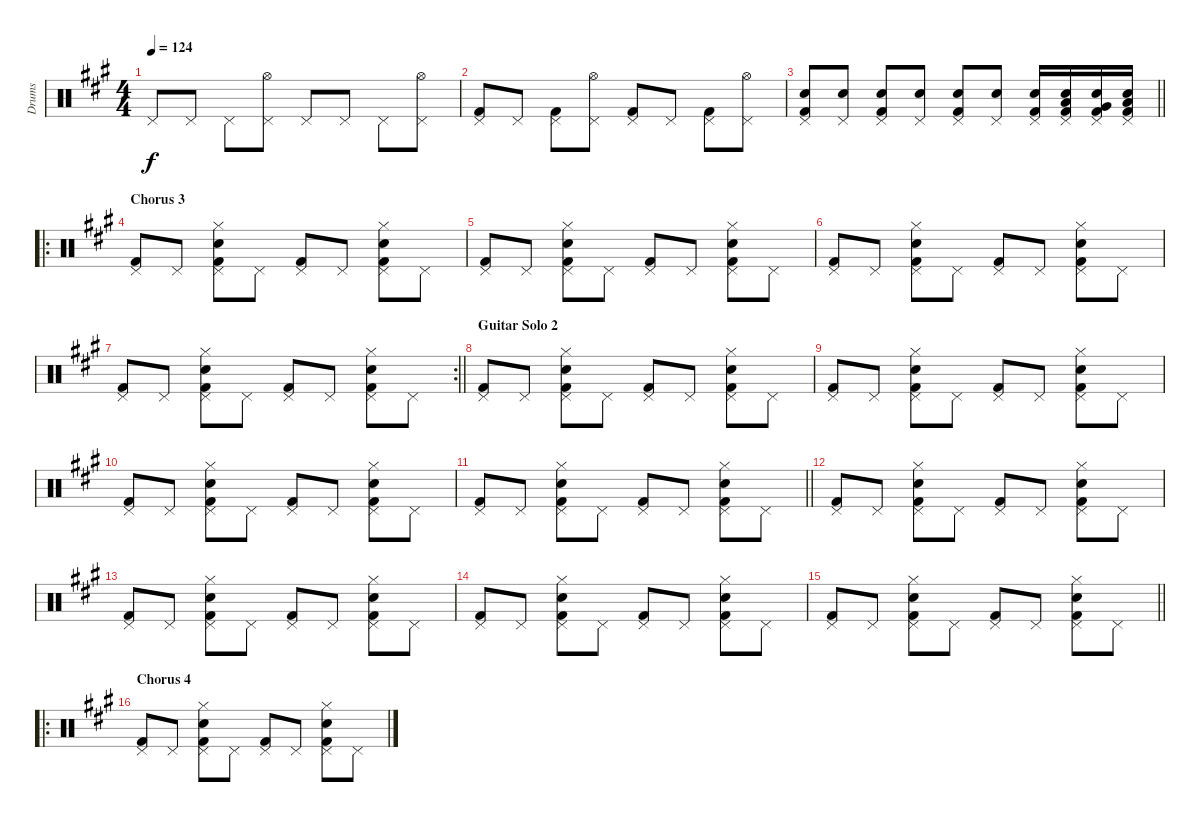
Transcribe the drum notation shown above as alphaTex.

\track ("Drums" "Drums") {instrument percussion}
\staff {score}
\articulation defaults
\ts (4 4)
\tempo 124
\clef neutral
\ks a "Pedal Hi-Hat (hit)".8{dy f} "Pedal Hi-Hat (hit)".8 "Pedal Hi-Hat (hit)".8
("Hi-Hat (open)" "Pedal Hi-Hat (hit)").8 "Pedal Hi-Hat (hit)".8 "Pedal Hi-Hat (hit)".8 "Pedal Hi-Hat (hit)".8 ("Hi-Hat (open)" "Pedal Hi-Hat (hit)").8 |
("Kick (hit) 2" "Pedal Hi-Hat (hit)").8 "Pedal Hi-Hat (hit)".8 ("Kick (hit) 2" "Pedal Hi-Hat (hit)").8 ("Hi-Hat (open)" "Pedal Hi-Hat (hit)").8 ("Kick (hit) 2" "Pedal Hi-Hat (hit)").8 "Pedal Hi-Hat (hit)".8 ("Kick (hit) 2" "Pedal Hi-Hat (hit)").8 ("Hi-Hat (open)" "Pedal Hi-Hat (hit)").8 |
\barLineRight lightlight
("Kick (hit) 2" "Snare (hit) 2" "Pedal Hi-Hat (hit)").8 ("Snare (hit) 2" "Pedal Hi-Hat (hit)").8 ("Kick (hit) 2" "Snare (hit) 2" "Pedal Hi-Hat (hit)").8 ("Snare (hit) 2" "Pedal Hi-Hat (hit)").8 ("Kick (hit) 2" "Snare (hit) 2" "Pedal Hi-Hat (hit)").8 ("Snare (hit) 2" "Pedal Hi-Hat (hit)").8 ("Kick (hit) 2" "Snare (hit) 2" "Pedal Hi-Hat (hit)").16 ("Kick (hit) 2" "Snare (hit) 2" "Pedal Hi-Hat (hit)" "Low Tom (hit)").16 ("Kick (hit) 2" "Snare (hit) 2" "Pedal Hi-Hat (hit)" "Very Low Tom (hit)").16 ("Kick (hit) 2" "Snare (hit) 2" "Pedal Hi-Hat (hit)" "Low Floor Tom (hit)").16 |
\ro
\section ("" "Chorus 3")
("Pedal Hi-Hat (hit)" "Kick (hit) 2").8 "Pedal Hi-Hat (hit)".8 ("Hi-Hat (closed)" "Snare (hit) 2" "Pedal Hi-Hat (hit)" "Kick (hit) 2").8 "Pedal Hi-Hat (hit)".8 ("Pedal Hi-Hat (hit)" "Kick (hit) 2").8 "Pedal Hi-Hat (hit)".8 ("Hi-Hat (closed)" "Snare (hit) 2" "Pedal Hi-Hat (hit)" "Kick (hit) 2").8 "Pedal Hi-Hat (hit)".8 |
("Pedal Hi-Hat (hit)" "Kick (hit) 2").8 "Pedal Hi-Hat (hit)".8 ("Hi-Hat (closed)" "Snare (hit) 2" "Pedal Hi-Hat (hit)" "Kick (hit) 2").8 "Pedal Hi-Hat (hit)".8 ("Pedal Hi-Hat (hit)" "Kick (hit) 2").8 "Pedal Hi-Hat (hit)".8 ("Hi-Hat (closed)" "Snare (hit) 2" "Pedal Hi-Hat (hit)" "Kick (hit) 2").8 "Pedal Hi-Hat (hit)".8 |
("Pedal Hi-Hat (hit)" "Kick (hit) 2").8 "Pedal Hi-Hat (hit)".8 ("Hi-Hat (closed)" "Snare (hit) 2" "Pedal Hi-Hat (hit)" "Kick (hit) 2").8 "Pedal Hi-Hat (hit)".8 ("Pedal Hi-Hat (hit)" "Kick (hit) 2").8 "Pedal Hi-Hat (hit)".8 ("Hi-Hat (closed)" "Snare (hit) 2" "Pedal Hi-Hat (hit)" "Kick (hit) 2").8 "Pedal Hi-Hat (hit)".8 |
\rc 2
\barLineRight lightlight
("Pedal Hi-Hat (hit)" "Kick (hit) 2").8 "Pedal Hi-Hat (hit)".8 ("Hi-Hat (closed)" "Snare (hit) 2" "Pedal Hi-Hat (hit)" "Kick (hit) 2").8 "Pedal Hi-Hat (hit)".8 ("Pedal Hi-Hat (hit)" "Kick (hit) 2").8 "Pedal Hi-Hat (hit)".8 ("Hi-Hat (closed)" "Snare (hit) 2" "Pedal Hi-Hat (hit)" "Kick (hit) 2").8 "Pedal Hi-Hat (hit)".8 |
\section ("" "Guitar Solo 2")
("Pedal Hi-Hat (hit)" "Kick (hit) 2").8 "Pedal Hi-Hat (hit)".8 ("Hi-Hat (closed)" "Snare (hit) 2" "Pedal Hi-Hat (hit)" "Kick (hit) 2").8 "Pedal Hi-Hat (hit)".8 ("Pedal Hi-Hat (hit)" "Kick (hit) 2").8 "Pedal Hi-Hat (hit)".8 ("Hi-Hat (closed)" "Snare (hit) 2" "Pedal Hi-Hat (hit)" "Kick (hit) 2").8 "Pedal Hi-Hat (hit)".8 |
("Pedal Hi-Hat (hit)" "Kick (hit) 2").8 "Pedal Hi-Hat (hit)".8 ("Hi-Hat (closed)" "Snare (hit) 2" "Pedal Hi-Hat (hit)" "Kick (hit) 2").8 "Pedal Hi-Hat (hit)".8 ("Pedal Hi-Hat (hit)" "Kick (hit) 2").8 "Pedal Hi-Hat (hit)".8 ("Hi-Hat (closed)" "Snare (hit) 2" "Pedal Hi-Hat (hit)" "Kick (hit) 2").8 "Pedal Hi-Hat (hit)".8 |
("Pedal Hi-Hat (hit)" "Kick (hit) 2").8 "Pedal Hi-Hat (hit)".8 ("Hi-Hat (closed)" "Snare (hit) 2" "Pedal Hi-Hat (hit)" "Kick (hit) 2").8 "Pedal Hi-Hat (hit)".8 ("Pedal Hi-Hat (hit)" "Kick (hit) 2").8 "Pedal Hi-Hat (hit)".8 ("Hi-Hat (closed)" "Snare (hit) 2" "Pedal Hi-Hat (hit)" "Kick (hit) 2").8 "Pedal Hi-Hat (hit)".8 |
\barLineRight lightlight
("Pedal Hi-Hat (hit)" "Kick (hit) 2").8 "Pedal Hi-Hat (hit)".8 ("Hi-Hat (closed)" "Snare (hit) 2" "Pedal Hi-Hat (hit)" "Kick (hit) 2").8 "Pedal Hi-Hat (hit)".8 ("Pedal Hi-Hat (hit)" "Kick (hit) 2").8 "Pedal Hi-Hat (hit)".8 ("Hi-Hat (closed)" "Snare (hit) 2" "Pedal Hi-Hat (hit)" "Kick (hit) 2").8 "Pedal Hi-Hat (hit)".8 |
("Pedal Hi-Hat (hit)" "Kick (hit) 2").8 "Pedal Hi-Hat (hit)".8 ("Hi-Hat (closed)" "Snare (hit) 2" "Pedal Hi-Hat (hit)" "Kick (hit) 2").8 "Pedal Hi-Hat (hit)".8 ("Pedal Hi-Hat (hit)" "Kick (hit) 2").8 "Pedal Hi-Hat (hit)".8 ("Hi-Hat (closed)" "Snare (hit) 2" "Pedal Hi-Hat (hit)" "Kick (hit) 2").8 "Pedal Hi-Hat (hit)".8 |
("Pedal Hi-Hat (hit)" "Kick (hit) 2").8 "Pedal Hi-Hat (hit)".8 ("Hi-Hat (closed)" "Snare (hit) 2" "Pedal Hi-Hat (hit)" "Kick (hit) 2").8 "Pedal Hi-Hat (hit)".8 ("Pedal Hi-Hat (hit)" "Kick (hit) 2").8 "Pedal Hi-Hat (hit)".8 ("Hi-Hat (closed)" "Snare (hit) 2" "Pedal Hi-Hat (hit)" "Kick (hit) 2").8 "Pedal Hi-Hat (hit)".8 |
("Pedal Hi-Hat (hit)" "Kick (hit) 2").8 "Pedal Hi-Hat (hit)".8 ("Hi-Hat (closed)" "Snare (hit) 2" "Pedal Hi-Hat (hit)" "Kick (hit) 2").8 "Pedal Hi-Hat (hit)".8 ("Pedal Hi-Hat (hit)" "Kick (hit) 2").8 "Pedal Hi-Hat (hit)".8 ("Hi-Hat (closed)" "Snare (hit) 2" "Pedal Hi-Hat (hit)" "Kick (hit) 2").8 "Pedal Hi-Hat (hit)".8 |
\barLineRight lightlight
("Pedal Hi-Hat (hit)" "Kick (hit) 2").8 "Pedal Hi-Hat (hit)".8 ("Hi-Hat (closed)" "Snare (hit) 2" "Pedal Hi-Hat (hit)" "Kick (hit) 2").8 "Pedal Hi-Hat (hit)".8 ("Pedal Hi-Hat (hit)" "Kick (hit) 2").8 "Pedal Hi-Hat (hit)".8 ("Hi-Hat (closed)" "Snare (hit) 2" "Pedal Hi-Hat (hit)" "Kick (hit) 2").8 "Pedal Hi-Hat (hit)".8 |
\ro
\section ("" "Chorus 4")
("Pedal Hi-Hat (hit)" "Kick (hit) 2").8 "Pedal Hi-Hat (hit)".8 ("Hi-Hat (closed)" "Snare (hit) 2" "Pedal Hi-Hat (hit)" "Kick (hit) 2").8 "Pedal Hi-Hat (hit)".8 ("Pedal Hi-Hat (hit)" "Kick (hit) 2").8 "Pedal Hi-Hat (hit)".8 ("Hi-Hat (closed)" "Snare (hit) 2" "Pedal Hi-Hat (hit)" "Kick (hit) 2").8 "Pedal Hi-Hat (hit)".8
